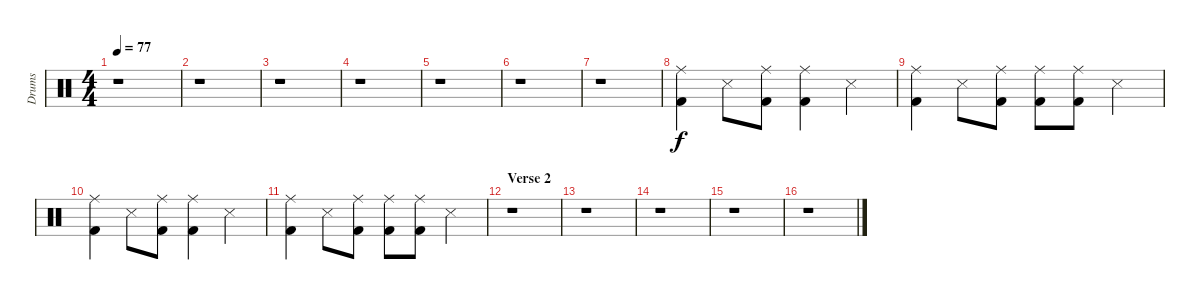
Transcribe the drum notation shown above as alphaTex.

\track ("Drums" "Drums") {instrument percussion}
\staff {score}
\articulation defaults
\ts (4 4)
\tempo 77
\clef neutral
\ks c
r.1{dy f} |
r.1 |
r.1 |
r.1 |
r.1 |
r.1 |
r.1 |
("Ride (middle)" "Kick (hit) 2").4 "Snare (side stick) 3".8 ("Ride (middle)" "Kick (hit) 2").8 ("Ride (middle)" "Kick (hit) 2").4 "Snare (side stick) 3".4 |
("Ride (middle)" "Kick (hit) 2").4 "Snare (side stick) 3".8 ("Ride (middle)" "Kick (hit) 2").8 ("Ride (middle)" "Kick (hit) 2").8 ("Ride (middle)" "Kick (hit) 2").8 "Snare (side stick) 3".4 |
("Ride (middle)" "Kick (hit) 2").4 "Snare (side stick) 3".8 ("Ride (middle)" "Kick (hit) 2").8 ("Ride (middle)" "Kick (hit) 2").4 "Snare (side stick) 3".4 |
("Ride (middle)" "Kick (hit) 2").4 "Snare (side stick) 3".8 ("Ride (middle)" "Kick (hit) 2").8 ("Ride (middle)" "Kick (hit) 2").8 ("Ride (middle)" "Kick (hit) 2").8 "Snare (side stick) 3".4 |
\section ("" "Verse 2")
r.1 |
r.1 |
r.1 |
r.1 |
r.1
